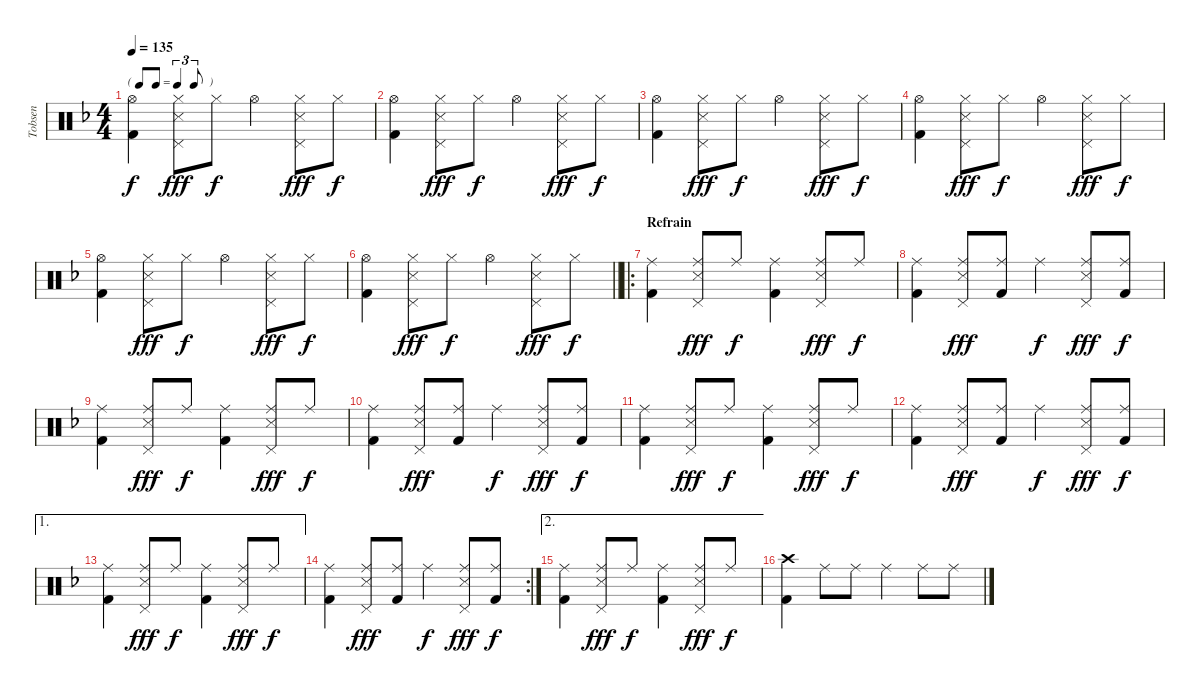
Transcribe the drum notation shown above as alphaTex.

\track ("Tobsen" "Tobsen") {instrument percussion}
\staff {score}
\articulation defaults
\ts (4 4)
\tf triplet8th
\tempo 135
\clef neutral
\ks f
("Hi-Hat (open)" "Kick (hit) 2").4{dy f} ("Hi-Hat (closed)" "Pedal Hi-Hat (hit)" "Snare (side stick) 3").8{dy fff} "Hi-Hat (closed)".8{dy f} "Hi-Hat (open)".4 ("Hi-Hat (closed)" "Pedal Hi-Hat (hit)" "Snare (side stick) 3").8{dy fff} "Hi-Hat (closed)".8{dy f} |
("Hi-Hat (open)" "Kick (hit) 2").4 ("Hi-Hat (closed)" "Pedal Hi-Hat (hit)" "Snare (side stick) 3").8{dy fff} "Hi-Hat (closed)".8{dy f} "Hi-Hat (open)".4 ("Hi-Hat (closed)" "Pedal Hi-Hat (hit)" "Snare (side stick) 3").8{dy fff} "Hi-Hat (closed)".8{dy f} |
("Hi-Hat (open)" "Kick (hit) 2").4 ("Hi-Hat (closed)" "Pedal Hi-Hat (hit)" "Snare (side stick) 3").8{dy fff} "Hi-Hat (closed)".8{dy f} "Hi-Hat (open)".4 ("Hi-Hat (closed)" "Pedal Hi-Hat (hit)" "Snare (side stick) 3").8{dy fff} "Hi-Hat (closed)".8{dy f} |
("Hi-Hat (open)" "Kick (hit) 2").4 ("Hi-Hat (closed)" "Pedal Hi-Hat (hit)" "Snare (side stick) 3").8{dy fff} "Hi-Hat (closed)".8{dy f} "Hi-Hat (open)".4 ("Hi-Hat (closed)" "Pedal Hi-Hat (hit)" "Snare (side stick) 3").8{dy fff} "Hi-Hat (closed)".8{dy f} |
("Hi-Hat (open)" "Kick (hit) 2").4 ("Hi-Hat (closed)" "Pedal Hi-Hat (hit)" "Snare (side stick) 3").8{dy fff} "Hi-Hat (closed)".8{dy f} "Hi-Hat (open)".4 ("Hi-Hat (closed)" "Pedal Hi-Hat (hit)" "Snare (side stick) 3").8{dy fff} "Hi-Hat (closed)".8{dy f} |
\barLineRight lightlight
("Hi-Hat (open)" "Kick (hit) 2").4 ("Hi-Hat (closed)" "Pedal Hi-Hat (hit)" "Snare (side stick) 3").8{dy fff} "Hi-Hat (closed)".8{dy f} "Hi-Hat (open)".4 ("Hi-Hat (closed)" "Pedal Hi-Hat (hit)" "Snare (side stick) 3").8{dy fff} "Hi-Hat (closed)".8{dy f} |
\ro
\section ("" "Refrain")
("Ride (middle)" "Kick (hit) 2").4 ("Ride (middle)" "Pedal Hi-Hat (hit)" "Snare (side stick) 3").8{dy fff} "Ride (middle)".8{dy f} ("Ride (middle)" "Kick (hit) 2").4 ("Ride (middle)" "Pedal Hi-Hat (hit)" "Snare (side stick) 3").8{dy fff} "Ride (middle)".8{dy f} |
("Ride (middle)" "Kick (hit) 2").4 ("Ride (middle)" "Pedal Hi-Hat (hit)" "Snare (side stick) 3").8{dy fff} ("Ride (middle)" "Kick (hit) 2").8 "Ride (middle)".4{dy f} ("Ride (middle)" "Pedal Hi-Hat (hit)" "Snare (side stick) 3").8{dy fff} ("Ride (middle)" "Kick (hit) 2").8{dy f} |
("Ride (middle)" "Kick (hit) 2").4 ("Ride (middle)" "Pedal Hi-Hat (hit)" "Snare (side stick) 3").8{dy fff} "Ride (middle)".8{dy f} ("Ride (middle)" "Kick (hit) 2").4 ("Ride (middle)" "Pedal Hi-Hat (hit)" "Snare (side stick) 3").8{dy fff} "Ride (middle)".8{dy f} |
("Ride (middle)" "Kick (hit) 2").4 ("Ride (middle)" "Pedal Hi-Hat (hit)" "Snare (side stick) 3").8{dy fff} ("Ride (middle)" "Kick (hit) 2").8 "Ride (middle)".4{dy f} ("Ride (middle)" "Pedal Hi-Hat (hit)" "Snare (side stick) 3").8{dy fff} ("Ride (middle)" "Kick (hit) 2").8{dy f} |
("Ride (middle)" "Kick (hit) 2").4 ("Ride (middle)" "Pedal Hi-Hat (hit)" "Snare (side stick) 3").8{dy fff} "Ride (middle)".8{dy f} ("Ride (middle)" "Kick (hit) 2").4 ("Ride (middle)" "Pedal Hi-Hat (hit)" "Snare (side stick) 3").8{dy fff} "Ride (middle)".8{dy f} |
("Ride (middle)" "Kick (hit) 2").4 ("Ride (middle)" "Pedal Hi-Hat (hit)" "Snare (side stick) 3").8{dy fff} ("Ride (middle)" "Kick (hit) 2").8 "Ride (middle)".4{dy f} ("Ride (middle)" "Pedal Hi-Hat (hit)" "Snare (side stick) 3").8{dy fff} ("Ride (middle)" "Kick (hit) 2").8{dy f} |
\ae 1
("Ride (middle)" "Kick (hit) 2").4 ("Ride (middle)" "Pedal Hi-Hat (hit)" "Snare (side stick) 3").8{dy fff} "Ride (middle)".8{dy f} ("Ride (middle)" "Kick (hit) 2").4 ("Ride (middle)" "Pedal Hi-Hat (hit)" "Snare (side stick) 3").8{dy fff} "Ride (middle)".8{dy f} |
\rc 2
("Ride (middle)" "Kick (hit) 2").4 ("Ride (middle)" "Pedal Hi-Hat (hit)" "Snare (side stick) 3").8{dy fff} ("Ride (middle)" "Kick (hit) 2").8 "Ride (middle)".4{dy f} ("Ride (middle)" "Pedal Hi-Hat (hit)" "Snare (side stick) 3").8{dy fff} ("Ride (middle)" "Kick (hit) 2").8{dy f} |
\ae 2
("Ride (middle)" "Kick (hit) 2").4 ("Ride (middle)" "Pedal Hi-Hat (hit)" "Snare (side stick) 3").8{dy fff} "Ride (middle)".8{dy f} ("Ride (middle)" "Kick (hit) 2").4 ("Ride (middle)" "Pedal Hi-Hat (hit)" "Snare (side stick) 3").8{dy fff} "Ride (middle)".8{dy f} |
("Crash high (hit)" "Kick (hit) 2").4 "Ride (middle)".8 "Ride (middle)".8 "Ride (middle)".4 "Ride (middle)".8 "Ride (middle)".8
